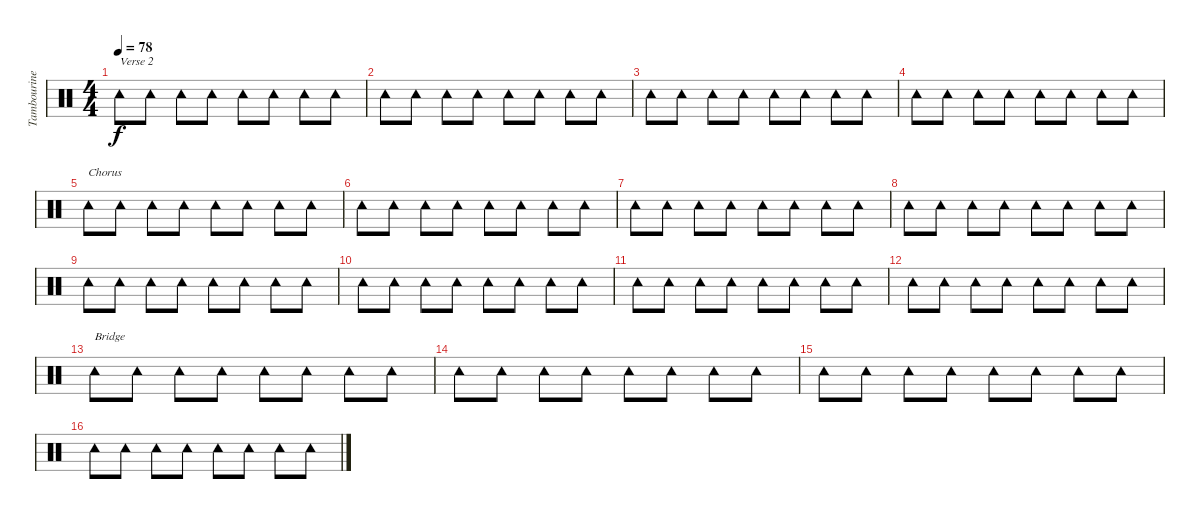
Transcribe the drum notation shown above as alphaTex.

\track ("Tambourine" "Tambourine") {instrument percussion}
\staff {score}
\articulation defaults
\ts (4 4)
\tempo 78
\clef neutral
\ks c "Tambourine (hit)".8{txt "Verse 2" dy f} "Tambourine (hit)".8 "Tambourine (hit)".8 "Tambourine (hit)".8 "Tambourine (hit)".8 "Tambourine (hit)".8 "Tambourine (hit)".8 "Tambourine (hit)".8
|
"Tambourine (hit)".8 "Tambourine (hit)".8 "Tambourine (hit)".8 "Tambourine (hit)".8 "Tambourine (hit)".8 "Tambourine (hit)".8 "Tambourine (hit)".8 "Tambourine (hit)".8 |
"Tambourine (hit)".8 "Tambourine (hit)".8 "Tambourine (hit)".8 "Tambourine (hit)".8 "Tambourine (hit)".8 "Tambourine (hit)".8 "Tambourine (hit)".8 "Tambourine (hit)".8 |
"Tambourine (hit)".8 "Tambourine (hit)".8 "Tambourine (hit)".8 "Tambourine (hit)".8 "Tambourine (hit)".8 "Tambourine (hit)".8 "Tambourine (hit)".8 "Tambourine (hit)".8 |
"Tambourine (hit)".8{txt "Chorus"} "Tambourine (hit)".8 "Tambourine (hit)".8 "Tambourine (hit)".8 "Tambourine (hit)".8 "Tambourine (hit)".8 "Tambourine (hit)".8 "Tambourine (hit)".8 |
"Tambourine (hit)".8 "Tambourine (hit)".8 "Tambourine (hit)".8 "Tambourine (hit)".8 "Tambourine (hit)".8 "Tambourine (hit)".8 "Tambourine (hit)".8 "Tambourine (hit)".8 |
"Tambourine (hit)".8 "Tambourine (hit)".8 "Tambourine (hit)".8 "Tambourine (hit)".8 "Tambourine (hit)".8 "Tambourine (hit)".8 "Tambourine (hit)".8 "Tambourine (hit)".8 |
"Tambourine (hit)".8 "Tambourine (hit)".8 "Tambourine (hit)".8 "Tambourine (hit)".8 "Tambourine (hit)".8 "Tambourine (hit)".8 "Tambourine (hit)".8 "Tambourine (hit)".8 |
"Tambourine (hit)".8 "Tambourine (hit)".8 "Tambourine (hit)".8 "Tambourine (hit)".8 "Tambourine (hit)".8 "Tambourine (hit)".8 "Tambourine (hit)".8 "Tambourine (hit)".8 |
"Tambourine (hit)".8 "Tambourine (hit)".8 "Tambourine (hit)".8 "Tambourine (hit)".8 "Tambourine (hit)".8 "Tambourine (hit)".8 "Tambourine (hit)".8 "Tambourine (hit)".8 |
"Tambourine (hit)".8 "Tambourine (hit)".8 "Tambourine (hit)".8 "Tambourine (hit)".8 "Tambourine (hit)".8 "Tambourine (hit)".8 "Tambourine (hit)".8 "Tambourine (hit)".8 |
"Tambourine (hit)".8 "Tambourine (hit)".8 "Tambourine (hit)".8 "Tambourine (hit)".8 "Tambourine (hit)".8 "Tambourine (hit)".8 "Tambourine (hit)".8 "Tambourine (hit)".8 |
"Tambourine (hit)".8{txt "Bridge"} "Tambourine (hit)".8 "Tambourine (hit)".8 "Tambourine (hit)".8 "Tambourine (hit)".8 "Tambourine (hit)".8 "Tambourine (hit)".8 "Tambourine (hit)".8 |
"Tambourine (hit)".8 "Tambourine (hit)".8 "Tambourine (hit)".8 "Tambourine (hit)".8 "Tambourine (hit)".8 "Tambourine (hit)".8 "Tambourine (hit)".8 "Tambourine (hit)".8 |
"Tambourine (hit)".8 "Tambourine (hit)".8 "Tambourine (hit)".8 "Tambourine (hit)".8 "Tambourine (hit)".8 "Tambourine (hit)".8 "Tambourine (hit)".8 "Tambourine (hit)".8 |
"Tambourine (hit)".8 "Tambourine (hit)".8 "Tambourine (hit)".8 "Tambourine (hit)".8 "Tambourine (hit)".8 "Tambourine (hit)".8 "Tambourine (hit)".8 "Tambourine (hit)".8
